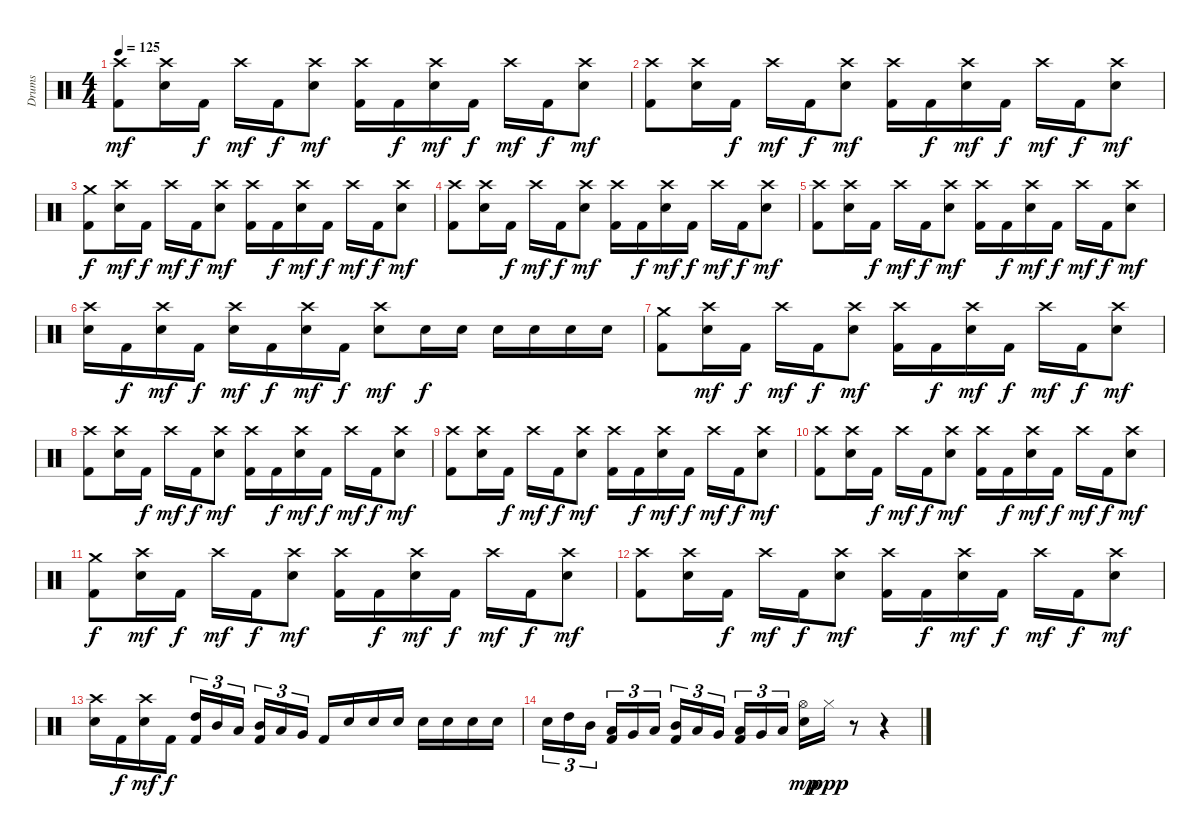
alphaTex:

\track ("Drums" "Drums") {instrument percussion}
\staff {score}
\articulation defaults
\ts (4 4)
\tempo 125
\clef neutral
\ks c
("Crash high (hit)" "Kick (hit) 2").8{dy mf} ("Crash high (hit)" "Snare (hit) 2").16 "Kick (hit) 2".16{dy f} "Crash high (hit)".16{dy mf} "Kick (hit) 2".16{dy f} ("Crash high (hit)" "Snare (hit) 2").8{dy mf} ("Crash high (hit)" "Kick (hit) 2").16 "Kick (hit) 2".16{dy f} ("Crash high (hit)" "Snare (hit) 2").16{dy mf} "Kick (hit) 2".16{dy f} "Crash high (hit)".16{dy mf} "Kick (hit) 2".16{dy f} ("Crash high (hit)" "Snare (hit) 2").8{dy mf} |
("Crash high (hit)" "Kick (hit) 2").8 ("Crash high (hit)" "Snare (hit) 2").16 "Kick (hit) 2".16{dy f} "Crash high (hit)".16{dy mf} "Kick (hit) 2".16{dy f} ("Crash high (hit)" "Snare (hit) 2").8{dy mf} ("Crash high (hit)" "Kick (hit) 2").16 "Kick (hit) 2".16{dy f} ("Crash high (hit)" "Snare (hit) 2").16{dy mf} "Kick (hit) 2".16{dy f} "Crash high (hit)".16{dy mf} "Kick (hit) 2".16{dy f} ("Crash high (hit)" "Snare (hit) 2").8{dy mf} |
("Crash medium (hit)" "Kick (hit) 2").8{dy f} ("Crash high (hit)" "Snare (hit) 2").16{dy mf} "Kick (hit) 2".16{dy f} "Crash high (hit)".16{dy mf} "Kick (hit) 2".16{dy f} ("Crash high (hit)" "Snare (hit) 2").8{dy mf} ("Crash high (hit)" "Kick (hit) 2").16 "Kick (hit) 2".16{dy f} ("Crash high (hit)" "Snare (hit) 2").16{dy mf} "Kick (hit) 2".16{dy f} "Crash high (hit)".16{dy mf} "Kick (hit) 2".16{dy f} ("Crash high (hit)" "Snare (hit) 2").8{dy mf} |
("Crash high (hit)" "Kick (hit) 2").8 ("Crash high (hit)" "Snare (hit) 2").16 "Kick (hit) 2".16{dy f} "Crash high (hit)".16{dy mf} "Kick (hit) 2".16{dy f} ("Crash high (hit)" "Snare (hit) 2").8{dy mf} ("Crash high (hit)" "Kick (hit) 2").16 "Kick (hit) 2".16{dy f} ("Crash high (hit)" "Snare (hit) 2").16{dy mf} "Kick (hit) 2".16{dy f} "Crash high (hit)".16{dy mf} "Kick (hit) 2".16{dy f} ("Crash high (hit)" "Snare (hit) 2").8{dy mf} |
("Crash high (hit)" "Kick (hit) 2").8 ("Crash high (hit)" "Snare (hit) 2").16 "Kick (hit) 2".16{dy f} "Crash high (hit)".16{dy mf} "Kick (hit) 2".16{dy f} ("Crash high (hit)" "Snare (hit) 2").8{dy mf} ("Crash high (hit)" "Kick (hit) 2").16 "Kick (hit) 2".16{dy f} ("Crash high (hit)" "Snare (hit) 2").16{dy mf} "Kick (hit) 2".16{dy f} "Crash high (hit)".16{dy mf} "Kick (hit) 2".16{dy f} ("Crash high (hit)" "Snare (hit) 2").8{dy mf} |
("Crash high (hit)" "Snare (hit) 2").16 "Kick (hit) 2".16{dy f} ("Crash high (hit)" "Snare (hit) 2").16{dy mf} "Kick (hit) 2".16{dy f} ("Crash high (hit)" "Snare (hit) 2").16{dy mf} "Kick (hit) 2".16{dy f} ("Crash high (hit)" "Snare (hit) 2").16{dy mf} "Kick (hit) 2".16{dy f} ("Crash high (hit)" "Snare (hit) 2").8{dy mf} "Snare (hit) 2".16{dy f} "Snare (hit) 2".16 "Snare (hit) 2".16 "Snare (hit) 2".16 "Snare (hit) 2".16 "Snare (hit) 2".16 |
("Crash medium (hit)" "Kick (hit) 2").8 ("Crash high (hit)" "Snare (hit) 2").16{dy mf} "Kick (hit) 2".16{dy f} "Crash high (hit)".16{dy mf} "Kick (hit) 2".16{dy f} ("Crash high (hit)" "Snare (hit) 2").8{dy mf} ("Crash high (hit)" "Kick (hit) 2").16 "Kick (hit) 2".16{dy f} ("Crash high (hit)" "Snare (hit) 2").16{dy mf} "Kick (hit) 2".16{dy f} "Crash high (hit)".16{dy mf} "Kick (hit) 2".16{dy f} ("Crash high (hit)" "Snare (hit) 2").8{dy mf} |
("Crash high (hit)" "Kick (hit) 2").8 ("Crash high (hit)" "Snare (hit) 2").16 "Kick (hit) 2".16{dy f} "Crash high (hit)".16{dy mf} "Kick (hit) 2".16{dy f} ("Crash high (hit)" "Snare (hit) 2").8{dy mf} ("Crash high (hit)" "Kick (hit) 2").16 "Kick (hit) 2".16{dy f} ("Crash high (hit)" "Snare (hit) 2").16{dy mf} "Kick (hit) 2".16{dy f} "Crash high (hit)".16{dy mf} "Kick (hit) 2".16{dy f} ("Crash high (hit)" "Snare (hit) 2").8{dy mf} |
("Crash high (hit)" "Kick (hit) 2").8 ("Crash high (hit)" "Snare (hit) 2").16 "Kick (hit) 2".16{dy f} "Crash high (hit)".16{dy mf} "Kick (hit) 2".16{dy f} ("Crash high (hit)" "Snare (hit) 2").8{dy mf} ("Crash high (hit)" "Kick (hit) 2").16 "Kick (hit) 2".16{dy f} ("Crash high (hit)" "Snare (hit) 2").16{dy mf} "Kick (hit) 2".16{dy f} "Crash high (hit)".16{dy mf} "Kick (hit) 2".16{dy f} ("Crash high (hit)" "Snare (hit) 2").8{dy mf} |
("Crash high (hit)" "Kick (hit) 2").8 ("Crash high (hit)" "Snare (hit) 2").16 "Kick (hit) 2".16{dy f} "Crash high (hit)".16{dy mf} "Kick (hit) 2".16{dy f} ("Crash high (hit)" "Snare (hit) 2").8{dy mf} ("Crash high (hit)" "Kick (hit) 2").16 "Kick (hit) 2".16{dy f} ("Crash high (hit)" "Snare (hit) 2").16{dy mf} "Kick (hit) 2".16{dy f} "Crash high (hit)".16{dy mf} "Kick (hit) 2".16{dy f} ("Crash high (hit)" "Snare (hit) 2").8{dy mf} |
("Crash medium (hit)" "Kick (hit) 2").8{dy f} ("Crash high (hit)" "Snare (hit) 2").16{dy mf} "Kick (hit) 2".16{dy f} "Crash high (hit)".16{dy mf} "Kick (hit) 2".16{dy f} ("Crash high (hit)" "Snare (hit) 2").8{dy mf} ("Crash high (hit)" "Kick (hit) 2").16 "Kick (hit) 2".16{dy f} ("Crash high (hit)" "Snare (hit) 2").16{dy mf} "Kick (hit) 2".16{dy f} "Crash high (hit)".16{dy mf} "Kick (hit) 2".16{dy f} ("Crash high (hit)" "Snare (hit) 2").8{dy mf} |
("Crash high (hit)" "Kick (hit) 2").8 ("Crash high (hit)" "Snare (hit) 2").16 "Kick (hit) 2".16{dy f} "Crash high (hit)".16{dy mf} "Kick (hit) 2".16{dy f} ("Crash high (hit)" "Snare (hit) 2").8{dy mf} ("Crash high (hit)" "Kick (hit) 2").16 "Kick (hit) 2".16{dy f} ("Crash high (hit)" "Snare (hit) 2").16{dy mf} "Kick (hit) 2".16{dy f} "Crash high (hit)".16{dy mf} "Kick (hit) 2".16{dy f} ("Crash high (hit)" "Snare (hit) 2").8{dy mf} |
("Crash high (hit)" "Snare (hit) 2").16 "Kick (hit) 2".16{dy f} ("Crash high (hit)" "Snare (hit) 2").16{dy mf} "Kick (hit) 2".16{dy f} ("High Tom (hit)" "Kick (hit) 2").16{tu (3 2)} "Mid Tom (hit)".16{tu (3 2)} "Low Tom (hit)".16{tu (3 2) beam splitsecondary} ("Mid Tom (hit)" "Kick (hit) 2").16{tu (3 2)} "Low Tom (hit)".16{tu (3 2)} "Very Low Tom (hit)".16{tu (3 2)} "Kick (hit) 2".16 "Snare (hit) 2".16 "Snare (hit) 2".16 "Snare (hit) 2".16 "Snare (hit) 2".16 "Snare (hit) 2".16 "Snare (hit) 2".16 "Snare (hit) 2".16 |
"Snare (hit) 2".16{tu (3 2)} "High Tom (hit)".16{tu (3 2)} "Mid Tom (hit)".16{tu (3 2) beam splitsecondary} ("Low Tom (hit)" "Kick (hit) 2").16{tu (3 2)} "Very Low Tom (hit)".16{tu (3 2)} "Low Floor Tom (hit)".16{tu (3 2)} ("Mid Tom (hit)" "Kick (hit) 2").16{tu (3 2)} "Low Tom (hit)".16{tu (3 2)} "Very Low Tom (hit)".16{tu (3 2) beam splitsecondary} ("Low Tom (hit)" "Kick (hit) 2").16{tu (3 2)} "Very Low Tom (hit)".16{tu (3 2)} "Low Floor Tom (hit)".16{tu (3 2)} ("Hi-Hat (open)" "Snare (hit) 2").16{dy mp} "Hi-Hat (closed)".16{dy ppp} r.8 r.4
